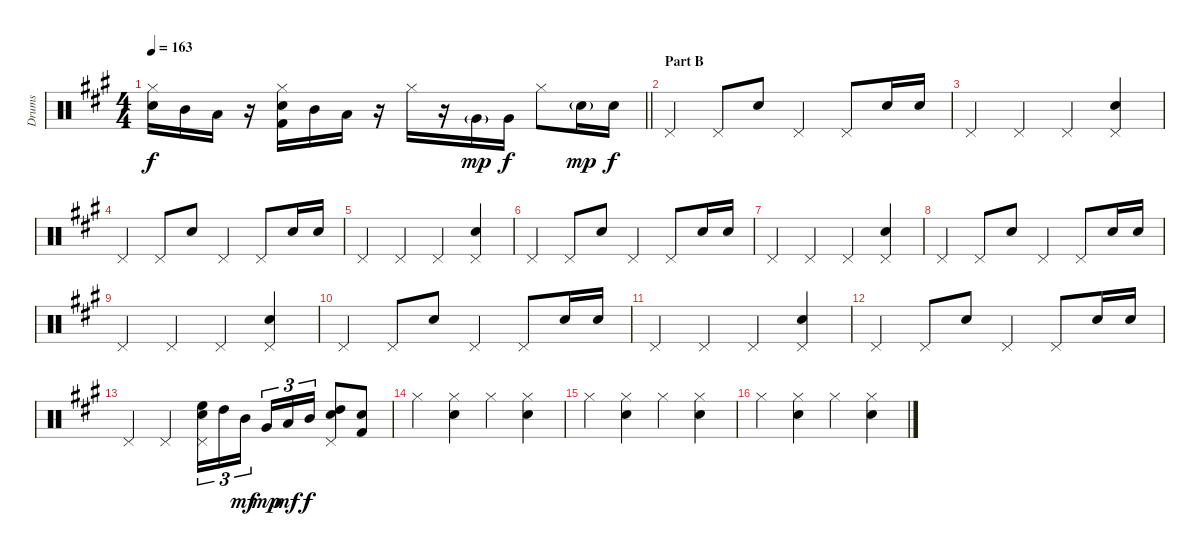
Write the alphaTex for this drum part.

\track ("Drums" "Drums") {instrument percussion}
\staff {score}
\articulation defaults
\ts (4 4)
\tempo 163
\clef neutral
\barLineRight lightlight
\ks a
("Hi-Hat (closed)" "Snare (hit) 2").16{dy f} "Mid Tom (hit)".16 "Low Tom (hit)".16 r.16 ("Hi-Hat (closed)" "Snare (hit) 2" "Kick (hit) 2").16 "Mid Tom (hit)".16 "Low Tom (hit)".16 r.16 "Hi-Hat (closed)".16 r.16 "Very Low Tom (hit)"{g}.16{dy mp} "Very Low Tom (hit)".16{dy f} "Hi-Hat (closed)".8 "Snare (hit) 2"{g}.16{dy mp} "Snare (hit) 2".16{dy f} |
\section ("" "Part B")
"Pedal Hi-Hat (hit)".4 "Pedal Hi-Hat (hit)".8 "Snare (hit) 2".8 "Pedal Hi-Hat (hit)".4 "Pedal Hi-Hat (hit)".8 "Snare (hit) 2".16 "Snare (hit) 2".16 |
"Pedal Hi-Hat (hit)".4 "Pedal Hi-Hat (hit)".4 "Pedal Hi-Hat (hit)".4 ("Pedal Hi-Hat (hit)" "Snare (hit) 2").4 |
"Pedal Hi-Hat (hit)".4 "Pedal Hi-Hat (hit)".8 "Snare (hit) 2".8 "Pedal Hi-Hat (hit)".4 "Pedal Hi-Hat (hit)".8 "Snare (hit) 2".16 "Snare (hit) 2".16 |
"Pedal Hi-Hat (hit)".4 "Pedal Hi-Hat (hit)".4 "Pedal Hi-Hat (hit)".4 ("Pedal Hi-Hat (hit)" "Snare (hit) 2").4 |
"Pedal Hi-Hat (hit)".4 "Pedal Hi-Hat (hit)".8 "Snare (hit) 2".8 "Pedal Hi-Hat (hit)".4 "Pedal Hi-Hat (hit)".8 "Snare (hit) 2".16 "Snare (hit) 2".16 |
"Pedal Hi-Hat (hit)".4 "Pedal Hi-Hat (hit)".4 "Pedal Hi-Hat (hit)".4 ("Pedal Hi-Hat (hit)" "Snare (hit) 2").4 |
"Pedal Hi-Hat (hit)".4 "Pedal Hi-Hat (hit)".8 "Snare (hit) 2".8 "Pedal Hi-Hat (hit)".4 "Pedal Hi-Hat (hit)".8 "Snare (hit) 2".16 "Snare (hit) 2".16 |
"Pedal Hi-Hat (hit)".4 "Pedal Hi-Hat (hit)".4 "Pedal Hi-Hat (hit)".4 ("Pedal Hi-Hat (hit)" "Snare (hit) 2").4 |
"Pedal Hi-Hat (hit)".4 "Pedal Hi-Hat (hit)".8 "Snare (hit) 2".8 "Pedal Hi-Hat (hit)".4 "Pedal Hi-Hat (hit)".8 "Snare (hit) 2".16 "Snare (hit) 2".16 |
"Pedal Hi-Hat (hit)".4 "Pedal Hi-Hat (hit)".4 "Pedal Hi-Hat (hit)".4 ("Pedal Hi-Hat (hit)" "Snare (hit) 2").4 |
"Pedal Hi-Hat (hit)".4 "Pedal Hi-Hat (hit)".8 "Snare (hit) 2".8 "Pedal Hi-Hat (hit)".4 "Pedal Hi-Hat (hit)".8 "Snare (hit) 2".16 "Snare (hit) 2".16 |
"Pedal Hi-Hat (hit)".4 "Pedal Hi-Hat (hit)".4 ("Pedal Hi-Hat (hit)" "High Floor Tom (hit)" "Snare (hit) 2").16{tu (3 2)} "High Tom (hit)".16{tu (3 2)} "Mid Tom (hit)".16{tu (3 2) dy mf beam splitsecondary} "Very Low Tom (hit)".16{tu (3 2) dy mp} "Low Tom (hit)".16{tu (3 2) dy mf} "Mid Tom (hit)".16{tu (3 2) dy f} ("Pedal Hi-Hat (hit)" "High Tom (hit)" "Snare (hit) 2").8 ("Snare (hit) 2" "Kick (hit) 2").8 |
"Hi-Hat (closed)".4 ("Hi-Hat (closed)" "Snare (hit) 2").4 "Hi-Hat (closed)".4 ("Hi-Hat (closed)" "Snare (hit) 2").4 |
"Hi-Hat (closed)".4 ("Hi-Hat (closed)" "Snare (hit) 2").4 "Hi-Hat (closed)".4 ("Hi-Hat (closed)" "Snare (hit) 2").4 |
"Hi-Hat (closed)".4 ("Hi-Hat (closed)" "Snare (hit) 2").4 "Hi-Hat (closed)".4 ("Hi-Hat (closed)" "Snare (hit) 2").4
